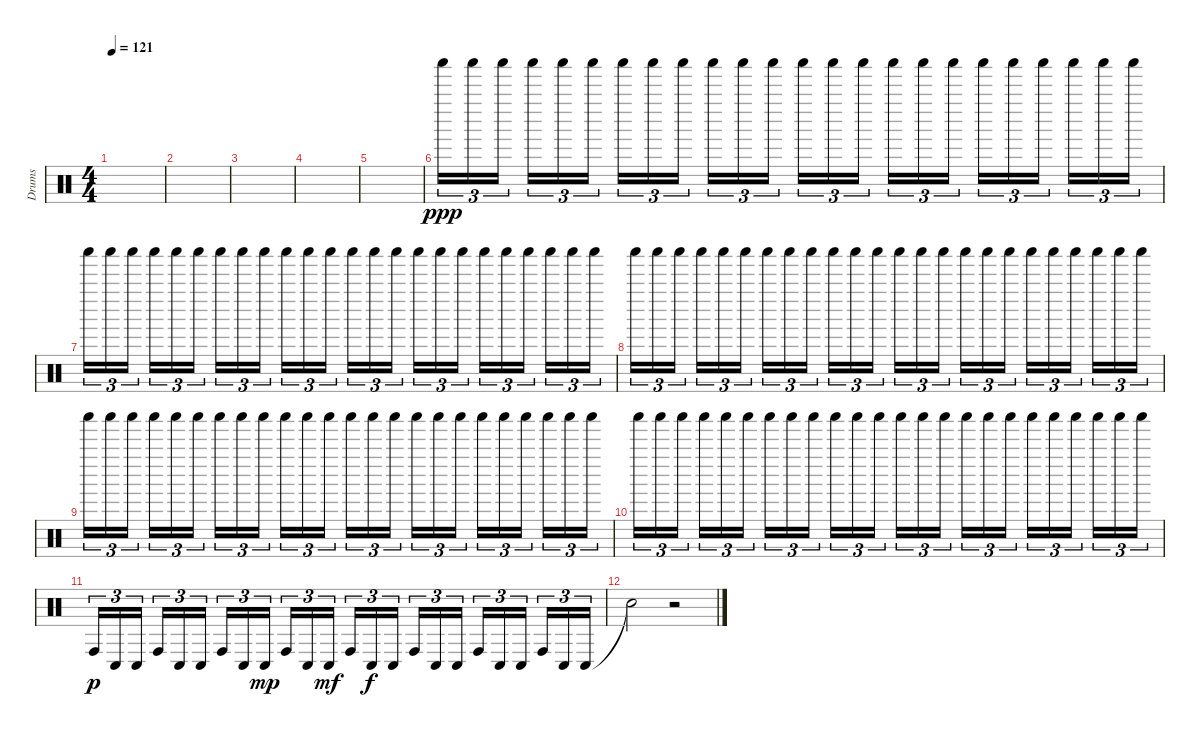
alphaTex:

\track ("Drums" "Drums") {instrument percussion}
\staff {score}
\articulation defaults
\ts (4 4)
\tempo 121
\clef neutral
\ks c
|
|
|
|
|
"Shaker (hit)".16{tu (3 2) dy ppp} "Shaker (hit)".16{tu (3 2)} "Shaker (hit)".16{tu (3 2)} "Shaker (hit)".16{tu (3 2)} "Shaker (hit)".16{tu (3 2)} "Shaker (hit)".16{tu (3 2)} "Shaker (hit)".16{tu (3 2)} "Shaker (hit)".16{tu (3 2)} "Shaker (hit)".16{tu (3 2)} "Shaker (hit)".16{tu (3 2)} "Shaker (hit)".16{tu (3 2)} "Shaker (hit)".16{tu (3 2)} "Shaker (hit)".16{tu (3 2)} "Shaker (hit)".16{tu (3 2)} "Shaker (hit)".16{tu (3 2)} "Shaker (hit)".16{tu (3 2)} "Shaker (hit)".16{tu (3 2)} "Shaker (hit)".16{tu (3 2)} "Shaker (hit)".16{tu (3 2)} "Shaker (hit)".16{tu (3 2)} "Shaker (hit)".16{tu (3 2)} "Shaker (hit)".16{tu (3 2)} "Shaker (hit)".16{tu (3 2)} "Shaker (hit)".16{tu (3 2)} |
"Shaker (hit)".16{tu (3 2)} "Shaker (hit)".16{tu (3 2)} "Shaker (hit)".16{tu (3 2)} "Shaker (hit)".16{tu (3 2)} "Shaker (hit)".16{tu (3 2)} "Shaker (hit)".16{tu (3 2)} "Shaker (hit)".16{tu (3 2)} "Shaker (hit)".16{tu (3 2)} "Shaker (hit)".16{tu (3 2)} "Shaker (hit)".16{tu (3 2)} "Shaker (hit)".16{tu (3 2)} "Shaker (hit)".16{tu (3 2)} "Shaker (hit)".16{tu (3 2)} "Shaker (hit)".16{tu (3 2)} "Shaker (hit)".16{tu (3 2)} "Shaker (hit)".16{tu (3 2)} "Shaker (hit)".16{tu (3 2)} "Shaker (hit)".16{tu (3 2)} "Shaker (hit)".16{tu (3 2)} "Shaker (hit)".16{tu (3 2)} "Shaker (hit)".16{tu (3 2)} "Shaker (hit)".16{tu (3 2)} "Shaker (hit)".16{tu (3 2)} "Shaker (hit)".16{tu (3 2)} |
"Shaker (hit)".16{tu (3 2)} "Shaker (hit)".16{tu (3 2)} "Shaker (hit)".16{tu (3 2)} "Shaker (hit)".16{tu (3 2)} "Shaker (hit)".16{tu (3 2)} "Shaker (hit)".16{tu (3 2)} "Shaker (hit)".16{tu (3 2)} "Shaker (hit)".16{tu (3 2)} "Shaker (hit)".16{tu (3 2)} "Shaker (hit)".16{tu (3 2)} "Shaker (hit)".16{tu (3 2)} "Shaker (hit)".16{tu (3 2)} "Shaker (hit)".16{tu (3 2)} "Shaker (hit)".16{tu (3 2)} "Shaker (hit)".16{tu (3 2)} "Shaker (hit)".16{tu (3 2)} "Shaker (hit)".16{tu (3 2)} "Shaker (hit)".16{tu (3 2)} "Shaker (hit)".16{tu (3 2)} "Shaker (hit)".16{tu (3 2)} "Shaker (hit)".16{tu (3 2)} "Shaker (hit)".16{tu (3 2)} "Shaker (hit)".16{tu (3 2)} "Shaker (hit)".16{tu (3 2)} |
"Shaker (hit)".16{tu (3 2)} "Shaker (hit)".16{tu (3 2)} "Shaker (hit)".16{tu (3 2)} "Shaker (hit)".16{tu (3 2)} "Shaker (hit)".16{tu (3 2)} "Shaker (hit)".16{tu (3 2)} "Shaker (hit)".16{tu (3 2)} "Shaker (hit)".16{tu (3 2)} "Shaker (hit)".16{tu (3 2)} "Shaker (hit)".16{tu (3 2)} "Shaker (hit)".16{tu (3 2)} "Shaker (hit)".16{tu (3 2)} "Shaker (hit)".16{tu (3 2)} "Shaker (hit)".16{tu (3 2)} "Shaker (hit)".16{tu (3 2)} "Shaker (hit)".16{tu (3 2)} "Shaker (hit)".16{tu (3 2)} "Shaker (hit)".16{tu (3 2)} "Shaker (hit)".16{tu (3 2)} "Shaker (hit)".16{tu (3 2)} "Shaker (hit)".16{tu (3 2)} "Shaker (hit)".16{tu (3 2)} "Shaker (hit)".16{tu (3 2)} "Shaker (hit)".16{tu (3 2)} |
"Shaker (hit)".16{tu (3 2)} "Shaker (hit)".16{tu (3 2)} "Shaker (hit)".16{tu (3 2)} "Shaker (hit)".16{tu (3 2)} "Shaker (hit)".16{tu (3 2)} "Shaker (hit)".16{tu (3 2)} "Shaker (hit)".16{tu (3 2)} "Shaker (hit)".16{tu (3 2)} "Shaker (hit)".16{tu (3 2)} "Shaker (hit)".16{tu (3 2)} "Shaker (hit)".16{tu (3 2)} "Shaker (hit)".16{tu (3 2)} "Shaker (hit)".16{tu (3 2)} "Shaker (hit)".16{tu (3 2)} "Shaker (hit)".16{tu (3 2)} "Shaker (hit)".16{tu (3 2)} "Shaker (hit)".16{tu (3 2)} "Shaker (hit)".16{tu (3 2)} "Shaker (hit)".16{tu (3 2)} "Shaker (hit)".16{tu (3 2)} "Shaker (hit)".16{tu (3 2)} "Shaker (hit)".16{tu (3 2)} "Shaker (hit)".16{tu (3 2)} "Shaker (hit)".16{tu (3 2)} |
"Conga high (hit)".16{tu (3 2) dy p} "Conga low (hit)".16{tu (3 2)} "Conga low (hit)".16{tu (3 2)} "Conga high (hit)".16{tu (3 2)} "Conga low (hit)".16{tu (3 2)} "Conga low (hit)".16{tu (3 2)} "Conga high (hit)".16{tu (3 2)} "Conga low (hit)".16{tu (3 2)} "Conga low (hit)".16{tu (3 2) dy mp} "Conga high (hit)".16{tu (3 2)} "Conga low (hit)".16{tu (3 2)} "Conga low (hit)".16{tu (3 2) dy mf} "Conga high (hit)".16{tu (3 2)} "Conga low (hit)".16{tu (3 2) dy f} "Conga low (hit)".16{tu (3 2)} "Conga high (hit)".16{tu (3 2)} "Conga low (hit)".16{tu (3 2)} "Conga low (hit)".16{tu (3 2)} "Conga high (hit)".16{tu (3 2)} "Conga low (hit)".16{tu (3 2)} "Conga low (hit)".16{tu (3 2)} "Conga high (hit)".16{tu (3 2)} "Conga low (hit)".16{tu (3 2)} "Conga low (hit)".16{tu (3 2)} |
"Snare (hit)"{t}.2 r.2
